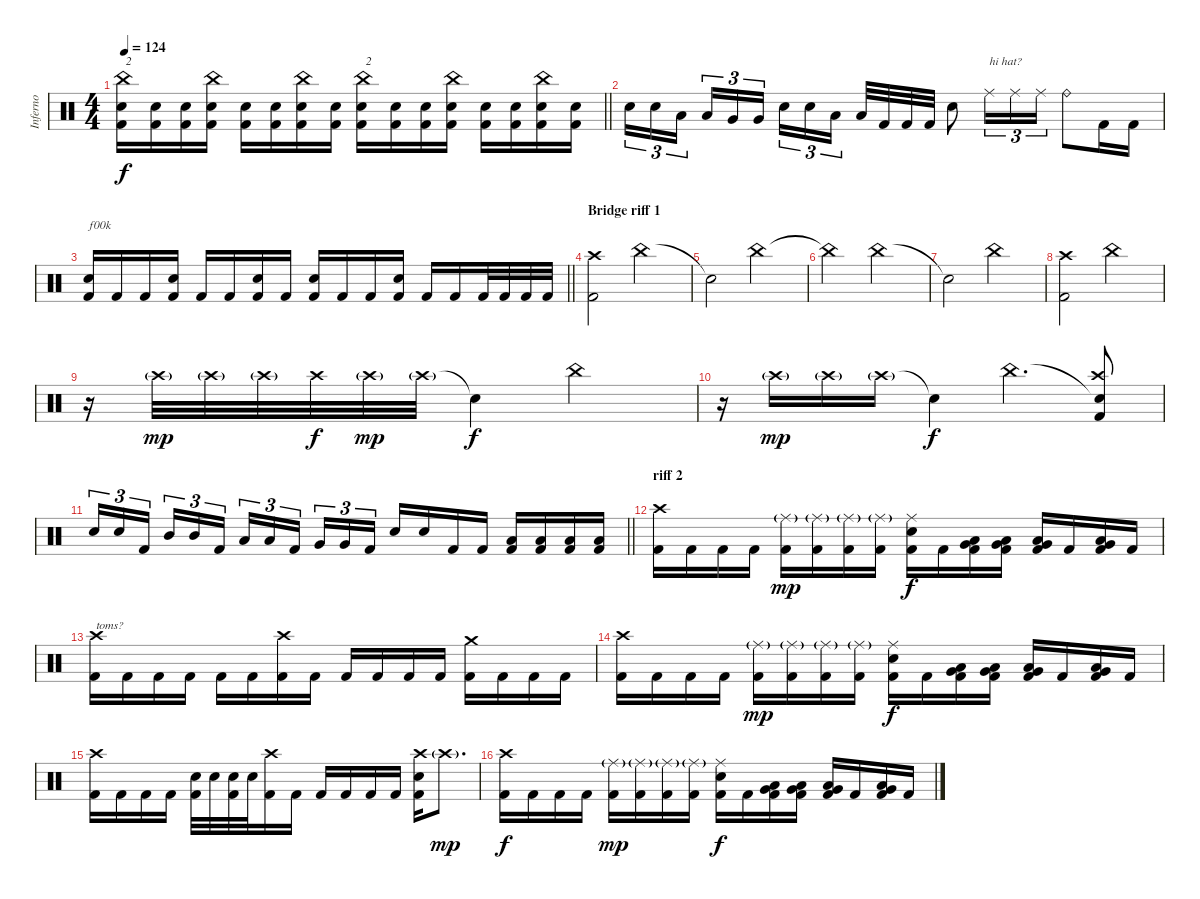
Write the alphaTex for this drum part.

\track ("Inferno" "Inferno") {instrument percussion}
\staff {score}
\articulation defaults
\ts (4 4)
\tempo 124
\clef neutral
\barLineRight lightlight
\ks c
("China (hit)" "Electric Snare (hit)" "Kick (hit) 2").16{txt "2" dy f} ("Electric Snare (hit)" "Kick (hit) 2").16 ("Electric Snare (hit)" "Kick (hit) 2").16 ("China (hit)" "Electric Snare (hit)" "Kick (hit) 2").16 ("Electric Snare (hit)" "Kick (hit) 2").16 ("Electric Snare (hit)" "Kick (hit) 2").16 ("China (hit)" "Electric Snare (hit)" "Kick (hit) 2").16 ("Electric Snare (hit)" "Kick (hit) 2").16 ("China (hit)" "Electric Snare (hit)" "Kick (hit) 2").16{txt "2"} ("Electric Snare (hit)" "Kick (hit) 2").16 ("Electric Snare (hit)" "Kick (hit) 2").16 ("China (hit)" "Electric Snare (hit)" "Kick (hit) 2").16 ("Electric Snare (hit)" "Kick (hit) 2").16 ("Electric Snare (hit)" "Kick (hit) 2").16 ("China (hit)" "Electric Snare (hit)" "Kick (hit) 2").16 ("Electric Snare (hit)" "Kick (hit) 2").16 |
"Electric Snare (hit)".16{tu (3 2)} "Electric Snare (hit)".16{tu (3 2)} "Low Tom (hit)".16{tu (3 2) beam splitsecondary} "Low Tom (hit)".16{tu (3 2)} "Very Low Tom (hit)".16{tu (3 2)} "Very Low Tom (hit)".16{tu (3 2)} "Electric Snare (hit)".16{tu (3 2)} "Electric Snare (hit)".16{tu (3 2)} "Low Floor Tom (hit)".16{tu (3 2) beam splitsecondary} "Low Floor Tom (hit)".32 "Kick (hit) 2".32 "Kick (hit) 2".32 "Kick (hit) 2".32 "Electric Snare (hit)".8 "Ride (middle)".16{tu (3 2) txt "hi hat?"} "Ride (middle)".16{tu (3 2)} "Ride (middle)".16{tu (3 2)} "Ride (bell)".8 "Kick (hit) 2".16 "Kick (hit) 2".16 |
\barLineRight lightlight
("Electric Snare (hit)" "Kick (hit) 2").16{txt "f00k"} "Kick (hit) 2".16 "Kick (hit) 2".16 ("Electric Snare (hit)" "Kick (hit) 2").16 "Kick (hit) 2".16 "Kick (hit) 2".16 ("Electric Snare (hit)" "Kick (hit) 2").16 "Kick (hit) 2".16 ("Electric Snare (hit)" "Kick (hit) 2").16 "Kick (hit) 2".16 "Kick (hit) 2".16 ("Electric Snare (hit)" "Kick (hit) 2").16 "Kick (hit) 2".16 "Kick (hit) 2".16 "Kick (hit) 2".32 "Kick (hit) 2".32 "Kick (hit) 2".32 "Kick (hit) 2".32 |
\section ("" "Bridge riff 1")
("Crash high (hit)" "Kick (hit) 2").2 "China (hit)".2 |
"Snare (hit)"{t}.2 "China (hit)".2 |
"China (hit)"{t}.2 "China (hit)".2 |
"Snare (hit)"{t}.2 "China (hit)".2 |
("Crash high (hit)" "Kick (hit) 2").2 "China (hit)".2 |
r.16 "Crash high (hit)"{g}.32{dy mp} "Crash high (hit)"{g}.32 "Crash high (hit)"{g}.32 "Crash high (hit)".32{dy f} "Crash high (hit)"{g}.32{dy mp} "Crash high (hit)"{g}.32 "Snare (hit)"{t}.4{dy f} "China (hit)".2 |
r.16 "Crash high (hit)"{g}.16{dy mp} "Crash high (hit)"{g}.16 "Crash high (hit)"{g}.16 "Snare (hit)"{t}.4{dy f} "China (hit)".4{d} ("Snare (hit)"{t} "Crash high (hit)" "Kick (hit) 2").8 |
\barLineRight lightlight "Electric Snare (hit)".16{tu (3 2)} "Electric Snare (hit)".16{tu (3 2)} "Kick (hit) 2".16{tu (3 2) beam splitsecondary} "Mid Tom (hit)".16{tu (3 2)} "Mid Tom (hit)".16{tu (3 2)} "Kick (hit) 2".16{tu (3 2)} "Low Tom (hit)".16{tu (3 2)} "Low Tom (hit)".16{tu (3 2)} "Kick (hit) 2".16{tu (3 2) beam splitsecondary} "Very Low Tom (hit)".16{tu (3 2)} "Very Low Tom (hit)".16{tu (3 2)} "Kick (hit) 2".16{tu (3 2)} "Electric Snare (hit)".16 "Electric Snare (hit)".16 "Kick (hit) 2".16 "Kick (hit) 2".16
("Low Tom (hit)" "Kick (hit) 2").16 ("Low Tom (hit)" "Kick (hit) 2").16 ("Low Tom (hit)" "Kick (hit) 2").16 ("Low Tom (hit)" "Kick (hit) 2").16 |
\section ("" "riff 2")
("Crash high (hit)" "Kick (hit) 2").16 "Kick (hit) 2".16 "Kick (hit) 2".16 "Kick (hit) 2".16 ("Ride (middle)"{g} "Kick (hit) 2").16{dy mp} ("Ride (middle)"{g} "Kick (hit) 2").16 ("Ride (middle)"{g} "Kick (hit) 2").16 ("Ride (middle)"{g} "Kick (hit) 2").16 ("Ride (middle)" "Electric Snare (hit)" "Kick (hit) 2").16{dy f} "Kick (hit) 2".16 ("Very Low Tom (hit)" "Low Tom (hit)" "Kick (hit) 2").16 ("Very Low Tom (hit)" "Low Tom (hit)" "Kick (hit) 2").16 ("Very Low Tom (hit)" "Low Tom (hit)" "Kick (hit) 2").16 "Kick (hit) 2".16 ("Very Low Tom (hit)" "Low Tom (hit)" "Kick (hit) 2").16 "Kick (hit) 2".16 |
("Crash high (hit)" "Kick (hit) 2").16{txt "toms?"} "Kick (hit) 2".16 "Kick (hit) 2".16 "Kick (hit) 2".16 "Kick (hit) 2".16 "Kick (hit) 2".16 ("Crash high (hit)" "Kick (hit) 2").16 "Kick (hit) 2".16 "Kick (hit) 2".16 "Kick (hit) 2".16 "Kick (hit) 2".16 "Kick (hit) 2".16 ("Crash medium (hit)" "Kick (hit) 2").16 "Kick (hit) 2".16 "Kick (hit) 2".16 "Kick (hit) 2".16 |
("Crash high (hit)" "Kick (hit) 2").16 "Kick (hit) 2".16 "Kick (hit) 2".16 "Kick (hit) 2".16 ("Ride (middle)"{g} "Kick (hit) 2").16{dy mp} ("Ride (middle)"{g} "Kick (hit) 2").16 ("Ride (middle)"{g} "Kick (hit) 2").16 ("Ride (middle)"{g} "Kick (hit) 2").16 ("Ride (middle)" "Electric Snare (hit)" "Kick (hit) 2").16{dy f} "Kick (hit) 2".16 ("Very Low Tom (hit)" "Low Tom (hit)" "Kick (hit) 2").16 ("Very Low Tom (hit)" "Low Tom (hit)" "Kick (hit) 2").16 ("Very Low Tom (hit)" "Low Tom (hit)" "Kick (hit) 2").16 "Kick (hit) 2".16 ("Very Low Tom (hit)" "Low Tom (hit)" "Kick (hit) 2").16 "Kick (hit) 2".16 |
("Crash high (hit)" "Kick (hit) 2").16 "Kick (hit) 2".16 "Kick (hit) 2".16 "Kick (hit) 2".16 ("Electric Snare (hit)" "Kick (hit) 2").32 "Electric Snare (hit)".32 ("Electric Snare (hit)" "Kick (hit) 2").32 "Electric Snare (hit)".32 ("Crash high (hit)" "Kick (hit) 2").16 "Kick (hit) 2".16 "Kick (hit) 2".16 "Kick (hit) 2".16 "Kick (hit) 2".16 "Kick (hit) 2".16 ("Crash high (hit)" "Electric Snare (hit)" "Kick (hit) 2").16 "Crash high (hit)"{g}.8{d dy mp} |
("Crash high (hit)" "Kick (hit) 2").16{dy f} "Kick (hit) 2".16 "Kick (hit) 2".16 "Kick (hit) 2".16 ("Ride (middle)"{g} "Kick (hit) 2").16{dy mp} ("Ride (middle)"{g} "Kick (hit) 2").16 ("Ride (middle)"{g} "Kick (hit) 2").16 ("Ride (middle)"{g} "Kick (hit) 2").16 ("Ride (middle)" "Electric Snare (hit)" "Kick (hit) 2").16{dy f} "Kick (hit) 2".16 ("Very Low Tom (hit)" "Low Tom (hit)" "Kick (hit) 2").16 ("Very Low Tom (hit)" "Low Tom (hit)" "Kick (hit) 2").16 ("Very Low Tom (hit)" "Low Tom (hit)" "Kick (hit) 2").16 "Kick (hit) 2".16 ("Very Low Tom (hit)" "Low Tom (hit)" "Kick (hit) 2").16 "Kick (hit) 2".16
